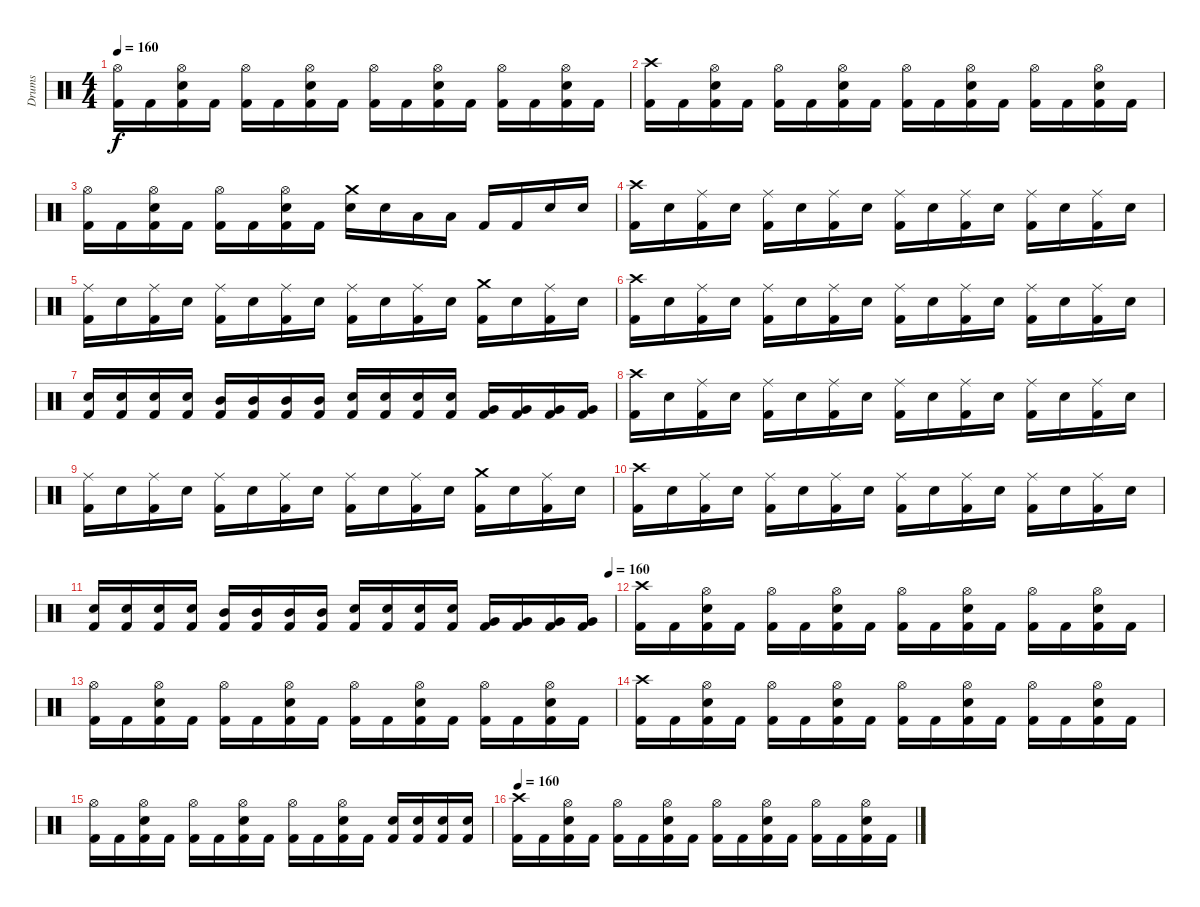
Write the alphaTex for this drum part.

\track ("Drums" "Drums") {instrument percussion}
\staff {score}
\articulation defaults
\ts (4 4)
\tempo 160
\clef neutral
\ks c
("Hi-Hat (open)" "Kick (hit) 2").16{dy f} "Kick (hit) 2".16 ("Hi-Hat (open)" "Snare (hit) 2" "Kick (hit) 2").16 "Kick (hit) 2".16 ("Hi-Hat (open)" "Kick (hit) 2").16 "Kick (hit) 2".16 ("Hi-Hat (open)" "Snare (hit) 2" "Kick (hit) 2").16 "Kick (hit) 2".16 ("Hi-Hat (open)" "Kick (hit) 2").16 "Kick (hit) 2".16 ("Hi-Hat (open)" "Snare (hit) 2" "Kick (hit) 2").16 "Kick (hit) 2".16 ("Hi-Hat (open)" "Kick (hit) 2").16 "Kick (hit) 2".16 ("Hi-Hat (open)" "Snare (hit) 2" "Kick (hit) 2").16 "Kick (hit) 2".16 |
("Crash high (hit)" "Kick (hit) 2").16 "Kick (hit) 2".16 ("Hi-Hat (open)" "Snare (hit) 2" "Kick (hit) 2").16 "Kick (hit) 2".16 ("Hi-Hat (open)" "Kick (hit) 2").16 "Kick (hit) 2".16 ("Hi-Hat (open)" "Snare (hit) 2" "Kick (hit) 2").16 "Kick (hit) 2".16 ("Hi-Hat (open)" "Kick (hit) 2").16 "Kick (hit) 2".16 ("Hi-Hat (open)" "Snare (hit) 2" "Kick (hit) 2").16 "Kick (hit) 2".16 ("Hi-Hat (open)" "Kick (hit) 2").16 "Kick (hit) 2".16 ("Hi-Hat (open)" "Snare (hit) 2" "Kick (hit) 2").16 "Kick (hit) 2".16 |
("Hi-Hat (open)" "Kick (hit) 2").16 "Kick (hit) 2".16 ("Hi-Hat (open)" "Snare (hit) 2" "Kick (hit) 2").16 "Kick (hit) 2".16 ("Hi-Hat (open)" "Kick (hit) 2").16 "Kick (hit) 2".16 ("Hi-Hat (open)" "Snare (hit) 2" "Kick (hit) 2").16 "Kick (hit) 2".16 ("Crash medium (hit)" "Snare (hit) 2").16 "Snare (hit) 2".16 "Low Tom (hit)".16 "Low Tom (hit)".16 "Kick (hit) 2".16 "Kick (hit) 2".16 "Snare (hit) 2".16 "Snare (hit) 2".16 |
("Crash high (hit)" "Kick (hit) 2").16 "Snare (hit) 2".16 ("Ride (middle)" "Kick (hit) 2").16 "Snare (hit) 2".16 ("Ride (middle)" "Kick (hit) 2").16 "Snare (hit) 2".16 ("Ride (middle)" "Kick (hit) 2").16 "Snare (hit) 2".16 ("Ride (middle)" "Kick (hit) 2").16 "Snare (hit) 2".16 ("Ride (middle)" "Kick (hit) 2").16 "Snare (hit) 2".16 ("Ride (middle)" "Kick (hit) 2").16 "Snare (hit) 2".16 ("Ride (middle)" "Kick (hit) 2").16 "Snare (hit) 2".16 |
("Ride (middle)" "Kick (hit) 2").16 "Snare (hit) 2".16 ("Ride (middle)" "Kick (hit) 2").16 "Snare (hit) 2".16 ("Ride (middle)" "Kick (hit) 2").16 "Snare (hit) 2".16 ("Ride (middle)" "Kick (hit) 2").16 "Snare (hit) 2".16 ("Ride (middle)" "Kick (hit) 2").16 "Snare (hit) 2".16 ("Ride (middle)" "Kick (hit) 2").16 "Snare (hit) 2".16 ("Crash medium (hit)" "Kick (hit) 2").16 "Snare (hit) 2".16 ("Ride (middle)" "Kick (hit) 2").16 "Snare (hit) 2".16 |
("Crash high (hit)" "Kick (hit) 2").16 "Snare (hit) 2".16 ("Ride (middle)" "Kick (hit) 2").16 "Snare (hit) 2".16 ("Ride (middle)" "Kick (hit) 2").16 "Snare (hit) 2".16 ("Ride (middle)" "Kick (hit) 2").16 "Snare (hit) 2".16 ("Ride (middle)" "Kick (hit) 2").16 "Snare (hit) 2".16 ("Ride (middle)" "Kick (hit) 2").16 "Snare (hit) 2".16 ("Ride (middle)" "Kick (hit) 2").16 "Snare (hit) 2".16 ("Ride (middle)" "Kick (hit) 2").16 "Snare (hit) 2".16 |
("Snare (hit) 2" "Kick (hit) 2").16 ("Snare (hit) 2" "Kick (hit) 2").16 ("Snare (hit) 2" "Kick (hit) 2").16 ("Snare (hit) 2" "Kick (hit) 2").16 ("Mid Tom (hit)" "Kick (hit) 2").16 ("Mid Tom (hit)" "Kick (hit) 2").16 ("Mid Tom (hit)" "Kick (hit) 2").16 ("Mid Tom (hit)" "Kick (hit) 2").16 ("Snare (hit) 2" "Kick (hit) 2").16 ("Snare (hit) 2" "Kick (hit) 2").16 ("Snare (hit) 2" "Kick (hit) 2").16 ("Snare (hit) 2" "Kick (hit) 2").16 ("Very Low Tom (hit)" "Kick (hit) 2").16 ("Very Low Tom (hit)" "Kick (hit) 2").16 ("Very Low Tom (hit)" "Kick (hit) 2").16 ("Very Low Tom (hit)" "Kick (hit) 2").16 |
("Crash high (hit)" "Kick (hit) 2").16 "Snare (hit) 2".16 ("Ride (middle)" "Kick (hit) 2").16 "Snare (hit) 2".16 ("Ride (middle)" "Kick (hit) 2").16 "Snare (hit) 2".16 ("Ride (middle)" "Kick (hit) 2").16 "Snare (hit) 2".16 ("Ride (middle)" "Kick (hit) 2").16 "Snare (hit) 2".16 ("Ride (middle)" "Kick (hit) 2").16 "Snare (hit) 2".16 ("Ride (middle)" "Kick (hit) 2").16 "Snare (hit) 2".16 ("Ride (middle)" "Kick (hit) 2").16 "Snare (hit) 2".16 |
("Ride (middle)" "Kick (hit) 2").16 "Snare (hit) 2".16 ("Ride (middle)" "Kick (hit) 2").16 "Snare (hit) 2".16 ("Ride (middle)" "Kick (hit) 2").16 "Snare (hit) 2".16 ("Ride (middle)" "Kick (hit) 2").16 "Snare (hit) 2".16 ("Ride (middle)" "Kick (hit) 2").16 "Snare (hit) 2".16 ("Ride (middle)" "Kick (hit) 2").16 "Snare (hit) 2".16 ("Crash medium (hit)" "Kick (hit) 2").16 "Snare (hit) 2".16 ("Ride (middle)" "Kick (hit) 2").16 "Snare (hit) 2".16 |
("Crash high (hit)" "Kick (hit) 2").16 "Snare (hit) 2".16 ("Ride (middle)" "Kick (hit) 2").16 "Snare (hit) 2".16 ("Ride (middle)" "Kick (hit) 2").16 "Snare (hit) 2".16 ("Ride (middle)" "Kick (hit) 2").16 "Snare (hit) 2".16 ("Ride (middle)" "Kick (hit) 2").16 "Snare (hit) 2".16 ("Ride (middle)" "Kick (hit) 2").16 "Snare (hit) 2".16 ("Ride (middle)" "Kick (hit) 2").16 "Snare (hit) 2".16 ("Ride (middle)" "Kick (hit) 2").16 "Snare (hit) 2".16 |
\tempo (160 0.9895833333333334)
("Snare (hit) 2" "Kick (hit) 2").16 ("Snare (hit) 2" "Kick (hit) 2").16 ("Snare (hit) 2" "Kick (hit) 2").16 ("Snare (hit) 2" "Kick (hit) 2").16 ("Mid Tom (hit)" "Kick (hit) 2").16 ("Mid Tom (hit)" "Kick (hit) 2").16 ("Mid Tom (hit)" "Kick (hit) 2").16 ("Mid Tom (hit)" "Kick (hit) 2").16 ("Snare (hit) 2" "Kick (hit) 2").16 ("Snare (hit) 2" "Kick (hit) 2").16 ("Snare (hit) 2" "Kick (hit) 2").16 ("Snare (hit) 2" "Kick (hit) 2").16 ("Very Low Tom (hit)" "Kick (hit) 2").16 ("Very Low Tom (hit)" "Kick (hit) 2").16 ("Very Low Tom (hit)" "Kick (hit) 2").16 ("Very Low Tom (hit)" "Kick (hit) 2").16 |
("Crash high (hit)" "Kick (hit) 2").16 "Kick (hit) 2".16 ("Hi-Hat (open)" "Snare (hit) 2" "Kick (hit) 2").16 "Kick (hit) 2".16 ("Hi-Hat (open)" "Kick (hit) 2").16 "Kick (hit) 2".16 ("Hi-Hat (open)" "Snare (hit) 2" "Kick (hit) 2").16 "Kick (hit) 2".16 ("Hi-Hat (open)" "Kick (hit) 2").16 "Kick (hit) 2".16 ("Hi-Hat (open)" "Snare (hit) 2" "Kick (hit) 2").16 "Kick (hit) 2".16 ("Hi-Hat (open)" "Kick (hit) 2").16 "Kick (hit) 2".16 ("Hi-Hat (open)" "Snare (hit) 2" "Kick (hit) 2").16 "Kick (hit) 2".16 |
("Hi-Hat (open)" "Kick (hit) 2").16 "Kick (hit) 2".16 ("Hi-Hat (open)" "Snare (hit) 2" "Kick (hit) 2").16 "Kick (hit) 2".16 ("Hi-Hat (open)" "Kick (hit) 2").16 "Kick (hit) 2".16 ("Hi-Hat (open)" "Snare (hit) 2" "Kick (hit) 2").16 "Kick (hit) 2".16 ("Hi-Hat (open)" "Kick (hit) 2").16 "Kick (hit) 2".16 ("Hi-Hat (open)" "Snare (hit) 2" "Kick (hit) 2").16 "Kick (hit) 2".16 ("Hi-Hat (open)" "Kick (hit) 2").16 "Kick (hit) 2".16 ("Hi-Hat (open)" "Snare (hit) 2" "Kick (hit) 2").16 "Kick (hit) 2".16 |
("Crash high (hit)" "Kick (hit) 2").16 "Kick (hit) 2".16 ("Hi-Hat (open)" "Snare (hit) 2" "Kick (hit) 2").16 "Kick (hit) 2".16 ("Hi-Hat (open)" "Kick (hit) 2").16 "Kick (hit) 2".16 ("Hi-Hat (open)" "Snare (hit) 2" "Kick (hit) 2").16 "Kick (hit) 2".16 ("Hi-Hat (open)" "Kick (hit) 2").16 "Kick (hit) 2".16 ("Hi-Hat (open)" "Snare (hit) 2" "Kick (hit) 2").16 "Kick (hit) 2".16 ("Hi-Hat (open)" "Kick (hit) 2").16 "Kick (hit) 2".16 ("Hi-Hat (open)" "Snare (hit) 2" "Kick (hit) 2").16 "Kick (hit) 2".16 |
("Hi-Hat (open)" "Kick (hit) 2").16 "Kick (hit) 2".16 ("Hi-Hat (open)" "Snare (hit) 2" "Kick (hit) 2").16 "Kick (hit) 2".16 ("Hi-Hat (open)" "Kick (hit) 2").16 "Kick (hit) 2".16 ("Hi-Hat (open)" "Snare (hit) 2" "Kick (hit) 2").16 "Kick (hit) 2".16 ("Hi-Hat (open)" "Kick (hit) 2").16 "Kick (hit) 2".16 ("Hi-Hat (open)" "Snare (hit) 2" "Kick (hit) 2").16 "Kick (hit) 2".16 ("Snare (hit) 2" "Kick (hit) 2").16 ("Snare (hit) 2" "Kick (hit) 2").16 ("Snare (hit) 2" "Kick (hit) 2").16 ("Snare (hit) 2" "Kick (hit) 2").16 |
\tempo 160
("Crash high (hit)" "Kick (hit) 2").16 "Kick (hit) 2".16 ("Hi-Hat (open)" "Snare (hit) 2" "Kick (hit) 2").16 "Kick (hit) 2".16 ("Hi-Hat (open)" "Kick (hit) 2").16 "Kick (hit) 2".16 ("Hi-Hat (open)" "Snare (hit) 2" "Kick (hit) 2").16 "Kick (hit) 2".16 ("Hi-Hat (open)" "Kick (hit) 2").16 "Kick (hit) 2".16 ("Hi-Hat (open)" "Snare (hit) 2" "Kick (hit) 2").16 "Kick (hit) 2".16 ("Hi-Hat (open)" "Kick (hit) 2").16 "Kick (hit) 2".16 ("Hi-Hat (open)" "Snare (hit) 2" "Kick (hit) 2").16 "Kick (hit) 2".16
